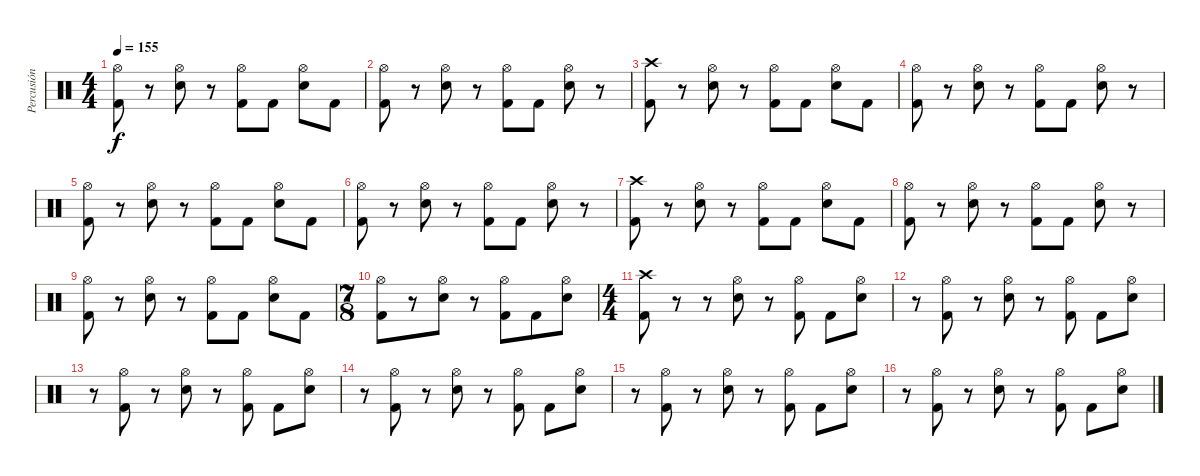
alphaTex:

\track ("Percusión" "Percusión") {instrument percussion}
\staff {score}
\articulation defaults
\ts (4 4)
\tempo 155
\clef neutral
\ks c
("Hi-Hat (open)" "Kick (hit) 2").8{dy f} r.8 ("Hi-Hat (open)" "Electric Snare (hit)").8 r.8 ("Hi-Hat (open)" "Kick (hit) 2").8 "Kick (hit) 2".8 ("Hi-Hat (open)" "Electric Snare (hit)").8 "Kick (hit) 2".8 |
("Hi-Hat (open)" "Kick (hit) 2").8 r.8 ("Hi-Hat (open)" "Electric Snare (hit)").8 r.8 ("Hi-Hat (open)" "Kick (hit) 2").8 "Kick (hit) 2".8 ("Hi-Hat (open)" "Electric Snare (hit)").8 r.8 |
("Crash high (hit)" "Kick (hit) 2").8 r.8 ("Hi-Hat (open)" "Electric Snare (hit)").8 r.8 ("Hi-Hat (open)" "Kick (hit) 2").8 "Kick (hit) 2".8 ("Hi-Hat (open)" "Electric Snare (hit)").8 "Kick (hit) 2".8 |
("Hi-Hat (open)" "Kick (hit) 2").8 r.8 ("Hi-Hat (open)" "Electric Snare (hit)").8 r.8 ("Hi-Hat (open)" "Kick (hit) 2").8 "Kick (hit) 2".8 ("Hi-Hat (open)" "Electric Snare (hit)").8 r.8 |
("Hi-Hat (open)" "Kick (hit) 2").8 r.8 ("Hi-Hat (open)" "Electric Snare (hit)").8 r.8 ("Hi-Hat (open)" "Kick (hit) 2").8 "Kick (hit) 2".8 ("Hi-Hat (open)" "Electric Snare (hit)").8 "Kick (hit) 2".8 |
("Hi-Hat (open)" "Kick (hit) 2").8 r.8 ("Hi-Hat (open)" "Electric Snare (hit)").8 r.8 ("Hi-Hat (open)" "Kick (hit) 2").8 "Kick (hit) 2".8 ("Hi-Hat (open)" "Electric Snare (hit)").8 r.8 |
("Crash high (hit)" "Kick (hit) 2").8 r.8 ("Hi-Hat (open)" "Electric Snare (hit)").8 r.8 ("Hi-Hat (open)" "Kick (hit) 2").8 "Kick (hit) 2".8 ("Hi-Hat (open)" "Electric Snare (hit)").8 "Kick (hit) 2".8 |
("Hi-Hat (open)" "Kick (hit) 2").8 r.8 ("Hi-Hat (open)" "Electric Snare (hit)").8 r.8 ("Hi-Hat (open)" "Kick (hit) 2").8 "Kick (hit) 2".8 ("Hi-Hat (open)" "Electric Snare (hit)").8 r.8 |
("Hi-Hat (open)" "Kick (hit) 2").8 r.8 ("Hi-Hat (open)" "Electric Snare (hit)").8 r.8 ("Hi-Hat (open)" "Kick (hit) 2").8 "Kick (hit) 2".8 ("Hi-Hat (open)" "Electric Snare (hit)").8 "Kick (hit) 2".8 |
\ts (7 8)
("Hi-Hat (open)" "Kick (hit) 2").8 r.8 ("Hi-Hat (open)" "Electric Snare (hit)").8 r.8 ("Hi-Hat (open)" "Kick (hit) 2").8 "Kick (hit) 2".8 ("Hi-Hat (open)" "Electric Snare (hit)").8 |
\ts (4 4)
("Crash high (hit)" "Kick (hit) 2").8 r.8 r.8 ("Hi-Hat (open)" "Electric Snare (hit)").8 r.8 ("Hi-Hat (open)" "Kick (hit) 2").8 "Kick (hit) 2".8 ("Hi-Hat (open)" "Electric Snare (hit)").8 |
r.8 ("Hi-Hat (open)" "Kick (hit) 2").8 r.8 ("Hi-Hat (open)" "Electric Snare (hit)").8 r.8 ("Hi-Hat (open)" "Kick (hit) 2").8 "Kick (hit) 2".8 ("Hi-Hat (open)" "Electric Snare (hit)").8 |
r.8 ("Hi-Hat (open)" "Kick (hit) 2").8 r.8 ("Hi-Hat (open)" "Electric Snare (hit)").8 r.8 ("Hi-Hat (open)" "Kick (hit) 2").8 "Kick (hit) 2".8 ("Hi-Hat (open)" "Electric Snare (hit)").8 |
r.8 ("Hi-Hat (open)" "Kick (hit) 2").8 r.8 ("Hi-Hat (open)" "Electric Snare (hit)").8 r.8 ("Hi-Hat (open)" "Kick (hit) 2").8 "Kick (hit) 2".8 ("Hi-Hat (open)" "Electric Snare (hit)").8 |
r.8 ("Hi-Hat (open)" "Kick (hit) 2").8 r.8 ("Hi-Hat (open)" "Electric Snare (hit)").8 r.8 ("Hi-Hat (open)" "Kick (hit) 2").8 "Kick (hit) 2".8 ("Hi-Hat (open)" "Electric Snare (hit)").8 |
r.8 ("Hi-Hat (open)" "Kick (hit) 2").8 r.8 ("Hi-Hat (open)" "Electric Snare (hit)").8 r.8 ("Hi-Hat (open)" "Kick (hit) 2").8 "Kick (hit) 2".8 ("Hi-Hat (open)" "Electric Snare (hit)").8
